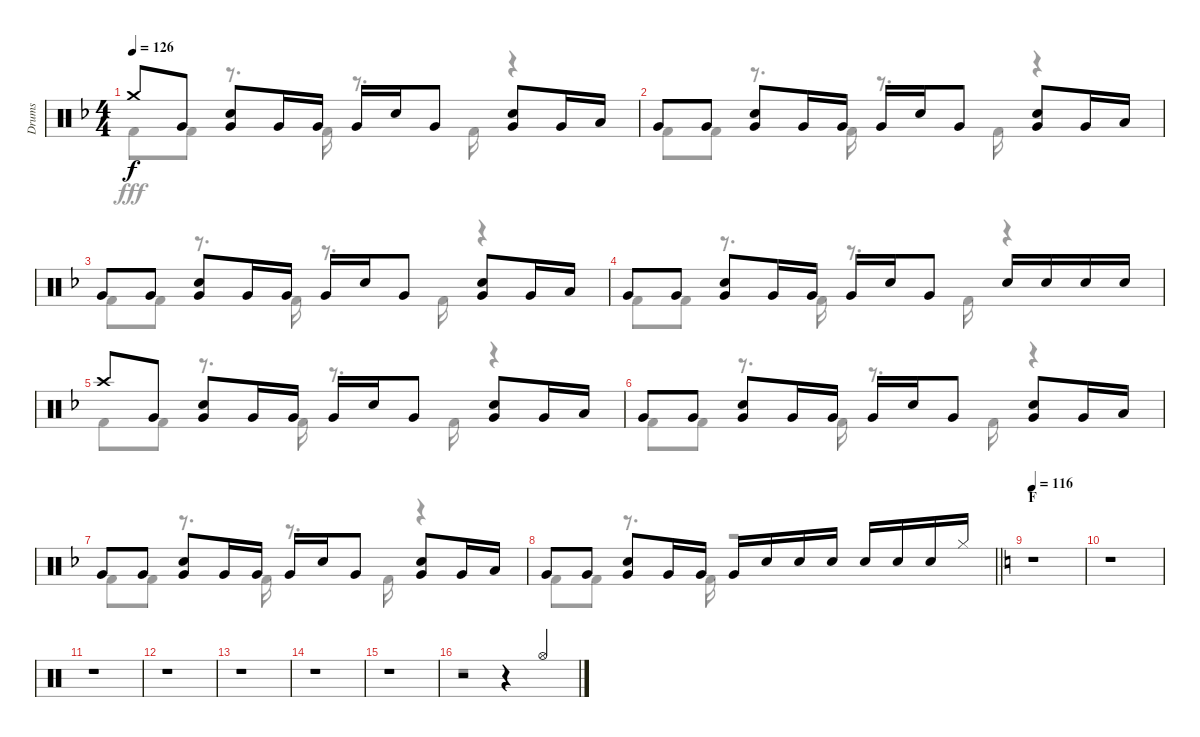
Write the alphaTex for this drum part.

\track ("Drums" "Drums") {instrument percussion}
\staff {score}
\articulation defaults
\voice
\ts (4 4)
\tempo 126
\clef neutral
\ks f "Crash medium (hit)".8{dy f} "Very Low Tom (hit)".8
("Snare (hit) 2" "Very Low Tom (hit)").8 "Very Low Tom (hit)".16 "Very Low Tom (hit)".16 "Very Low Tom (hit)".16 "Snare (hit) 2".16 "Very Low Tom (hit)".8 ("Snare (hit) 2" "Very Low Tom (hit)").8 "Very Low Tom (hit)".16 "Low Tom (hit)".16 |
"Very Low Tom (hit)".8 "Very Low Tom (hit)".8 ("Snare (hit) 2" "Very Low Tom (hit)").8 "Very Low Tom (hit)".16 "Very Low Tom (hit)".16 "Very Low Tom (hit)".16 "Snare (hit) 2".16 "Very Low Tom (hit)".8 ("Snare (hit) 2" "Very Low Tom (hit)").8 "Very Low Tom (hit)".16 "Low Tom (hit)".16 |
"Very Low Tom (hit)".8 "Very Low Tom (hit)".8 ("Snare (hit) 2" "Very Low Tom (hit)").8 "Very Low Tom (hit)".16 "Very Low Tom (hit)".16 "Very Low Tom (hit)".16 "Snare (hit) 2".16 "Very Low Tom (hit)".8 ("Snare (hit) 2" "Very Low Tom (hit)").8 "Very Low Tom (hit)".16 "Low Tom (hit)".16 |
"Very Low Tom (hit)".8 "Very Low Tom (hit)".8 ("Snare (hit) 2" "Very Low Tom (hit)").8 "Very Low Tom (hit)".16 "Very Low Tom (hit)".16 "Very Low Tom (hit)".16 "Snare (hit) 2".16 "Very Low Tom (hit)".8 "Snare (hit) 2".16 "Snare (hit) 2".16 "Snare (hit) 2".16 "Snare (hit) 2".16 |
"Crash high (hit)".8 "Very Low Tom (hit)".8 ("Snare (hit) 2" "Very Low Tom (hit)").8 "Very Low Tom (hit)".16 "Very Low Tom (hit)".16 "Very Low Tom (hit)".16 "Snare (hit) 2".16 "Very Low Tom (hit)".8 ("Snare (hit) 2" "Very Low Tom (hit)").8 "Very Low Tom (hit)".16 "Low Tom (hit)".16 |
"Very Low Tom (hit)".8 "Very Low Tom (hit)".8 ("Snare (hit) 2" "Very Low Tom (hit)").8 "Very Low Tom (hit)".16 "Very Low Tom (hit)".16 "Very Low Tom (hit)".16 "Snare (hit) 2".16 "Very Low Tom (hit)".8 ("Snare (hit) 2" "Very Low Tom (hit)").8 "Very Low Tom (hit)".16 "Low Tom (hit)".16 |
"Very Low Tom (hit)".8 "Very Low Tom (hit)".8 ("Snare (hit) 2" "Very Low Tom (hit)").8 "Very Low Tom (hit)".16 "Very Low Tom (hit)".16 "Very Low Tom (hit)".16 "Snare (hit) 2".16 "Very Low Tom (hit)".8 ("Snare (hit) 2" "Very Low Tom (hit)").8 "Very Low Tom (hit)".16 "Low Tom (hit)".16 |
\barLineRight lightlight "Very Low Tom (hit)".8 "Very Low Tom (hit)".8
("Snare (hit) 2" "Very Low Tom (hit)").8 "Very Low Tom (hit)".16 "Very Low Tom (hit)".16 "Very Low Tom (hit)".16 "Snare (hit) 2".16 "Snare (hit) 2".16 "Snare (hit) 2".16 "Snare (hit) 2".16 "Snare (hit) 2".16 "Snare (hit) 2".16 "Hi-Hat (closed)".16 |
\section ("" "F")
\tempo 116
\ks c
r.1 |
r.1 |
r.1 |
r.1 |
r.1 |
r.1 |
r.1 |
r.2 r.4 "Hi-Hat (open)".4
\voice
\clef neutral
\ottava regular
\simile none
\ks f "Kick (hit) 2".8{dy fff} "Kick (hit) 2".8
r.8{d} "Kick (hit) 2".16 r.8{d} "Kick (hit) 2".16 r.4 |
"Kick (hit) 2".8 "Kick (hit) 2".8 r.8{d} "Kick (hit) 2".16 r.8{d} "Kick (hit) 2".16 r.4 |
"Kick (hit) 2".8 "Kick (hit) 2".8 r.8{d} "Kick (hit) 2".16 r.8{d} "Kick (hit) 2".16 r.4 |
"Kick (hit) 2".8 "Kick (hit) 2".8 r.8{d} "Kick (hit) 2".16 r.8{d} "Kick (hit) 2".16 r.4 |
"Kick (hit) 2".8 "Kick (hit) 2".8 r.8{d} "Kick (hit) 2".16 r.8{d} "Kick (hit) 2".16 r.4 |
"Kick (hit) 2".8 "Kick (hit) 2".8 r.8{d} "Kick (hit) 2".16 r.8{d} "Kick (hit) 2".16 r.4 |
"Kick (hit) 2".8 "Kick (hit) 2".8 r.8{d} "Kick (hit) 2".16 r.8{d} "Kick (hit) 2".16 r.4 |
\barLineRight lightlight "Kick (hit) 2".8 "Kick (hit) 2".8
r.8{d} "Kick (hit) 2".16 r.2 |
\ks c
r.1 |
r.1 |
r.1 |
r.1 |
r.1 |
r.1 |
r.1 |
r.1
